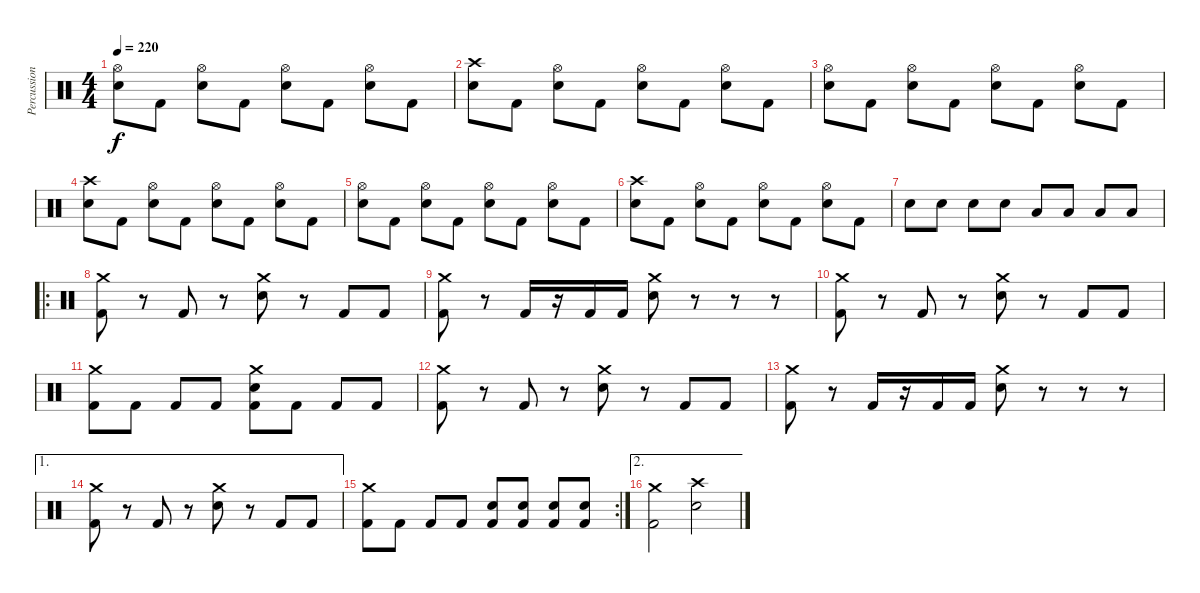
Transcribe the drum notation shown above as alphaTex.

\track ("Percussions" "Percussion") {instrument percussion}
\staff {score}
\articulation defaults
\ts (4 4)
\tempo 220
\clef neutral
\ks c
("Electric Snare (hit)" "Hi-Hat (open)").8{dy f} "Kick (hit) 2".8 ("Electric Snare (hit)" "Hi-Hat (open)").8 "Kick (hit) 2".8 ("Electric Snare (hit)" "Hi-Hat (open)").8 "Kick (hit) 2".8 ("Electric Snare (hit)" "Hi-Hat (open)").8 "Kick (hit) 2".8 |
("Electric Snare (hit)" "Crash high (hit)").8 "Kick (hit) 2".8 ("Electric Snare (hit)" "Hi-Hat (open)").8 "Kick (hit) 2".8 ("Electric Snare (hit)" "Hi-Hat (open)").8 "Kick (hit) 2".8 ("Electric Snare (hit)" "Hi-Hat (open)").8 "Kick (hit) 2".8 |
("Electric Snare (hit)" "Hi-Hat (open)").8 "Kick (hit) 2".8 ("Electric Snare (hit)" "Hi-Hat (open)").8 "Kick (hit) 2".8 ("Electric Snare (hit)" "Hi-Hat (open)").8 "Kick (hit) 2".8 ("Electric Snare (hit)" "Hi-Hat (open)").8 "Kick (hit) 2".8 |
("Electric Snare (hit)" "Crash high (hit)").8 "Kick (hit) 2".8 ("Electric Snare (hit)" "Hi-Hat (open)").8 "Kick (hit) 2".8 ("Electric Snare (hit)" "Hi-Hat (open)").8 "Kick (hit) 2".8 ("Electric Snare (hit)" "Hi-Hat (open)").8 "Kick (hit) 2".8 |
("Electric Snare (hit)" "Hi-Hat (open)").8 "Kick (hit) 2".8 ("Electric Snare (hit)" "Hi-Hat (open)").8 "Kick (hit) 2".8 ("Electric Snare (hit)" "Hi-Hat (open)").8 "Kick (hit) 2".8 ("Electric Snare (hit)" "Hi-Hat (open)").8 "Kick (hit) 2".8 |
("Electric Snare (hit)" "Crash high (hit)").8 "Kick (hit) 2".8 ("Electric Snare (hit)" "Hi-Hat (open)").8 "Kick (hit) 2".8 ("Electric Snare (hit)" "Hi-Hat (open)").8 "Kick (hit) 2".8 ("Electric Snare (hit)" "Hi-Hat (open)").8 "Kick (hit) 2".8 |
"Electric Snare (hit)".8 "Electric Snare (hit)".8 "Electric Snare (hit)".8 "Electric Snare (hit)".8 "Low Tom (hit)".8 "Low Tom (hit)".8 "Low Floor Tom (hit)".8 "Low Floor Tom (hit)".8 |
\ro
("Kick (hit) 2" "Crash medium (hit)").8 r.8 "Kick (hit) 2".8 r.8 ("Electric Snare (hit)" "Crash medium (hit)").8 r.8 "Kick (hit) 2".8 "Kick (hit) 2".8 |
("Kick (hit) 2" "Crash medium (hit)").8 r.8 "Kick (hit) 2".16 r.16 "Kick (hit) 2".16 "Kick (hit) 2".16 ("Electric Snare (hit)" "Crash medium (hit)").8 r.8 r.8 r.8 |
("Kick (hit) 2" "Crash medium (hit)").8 r.8 "Kick (hit) 2".8 r.8 ("Electric Snare (hit)" "Crash medium (hit)").8 r.8 "Kick (hit) 2".8 "Kick (hit) 2".8 |
("Kick (hit) 2" "Crash medium (hit)").8 "Kick (hit) 2".8 "Kick (hit) 2".8 "Kick (hit) 2".8 ("Kick (hit) 2" "Electric Snare (hit)" "Crash medium (hit)").8 "Kick (hit) 2".8 "Kick (hit) 2".8 "Kick (hit) 2".8 |
("Kick (hit) 2" "Crash medium (hit)").8 r.8 "Kick (hit) 2".8 r.8 ("Electric Snare (hit)" "Crash medium (hit)").8 r.8 "Kick (hit) 2".8 "Kick (hit) 2".8 |
("Kick (hit) 2" "Crash medium (hit)").8 r.8 "Kick (hit) 2".16 r.16 "Kick (hit) 2".16 "Kick (hit) 2".16 ("Electric Snare (hit)" "Crash medium (hit)").8 r.8 r.8 r.8 |
\ae 1
("Kick (hit) 2" "Crash medium (hit)").8 r.8 "Kick (hit) 2".8 r.8 ("Electric Snare (hit)" "Crash medium (hit)").8 r.8 "Kick (hit) 2".8 "Kick (hit) 2".8 |
\rc 2
("Kick (hit) 2" "Crash medium (hit)").8 "Kick (hit) 2".8 "Kick (hit) 2".8 "Kick (hit) 2".8 ("Kick (hit) 2" "Electric Snare (hit)").8 ("Kick (hit) 2" "Electric Snare (hit)").8 ("Kick (hit) 2" "Electric Snare (hit)").8 ("Kick (hit) 2" "Electric Snare (hit)").8 |
\ae 2
("Kick (hit) 2" "Crash medium (hit)").2 ("Electric Snare (hit)" "Crash high (hit)").2
